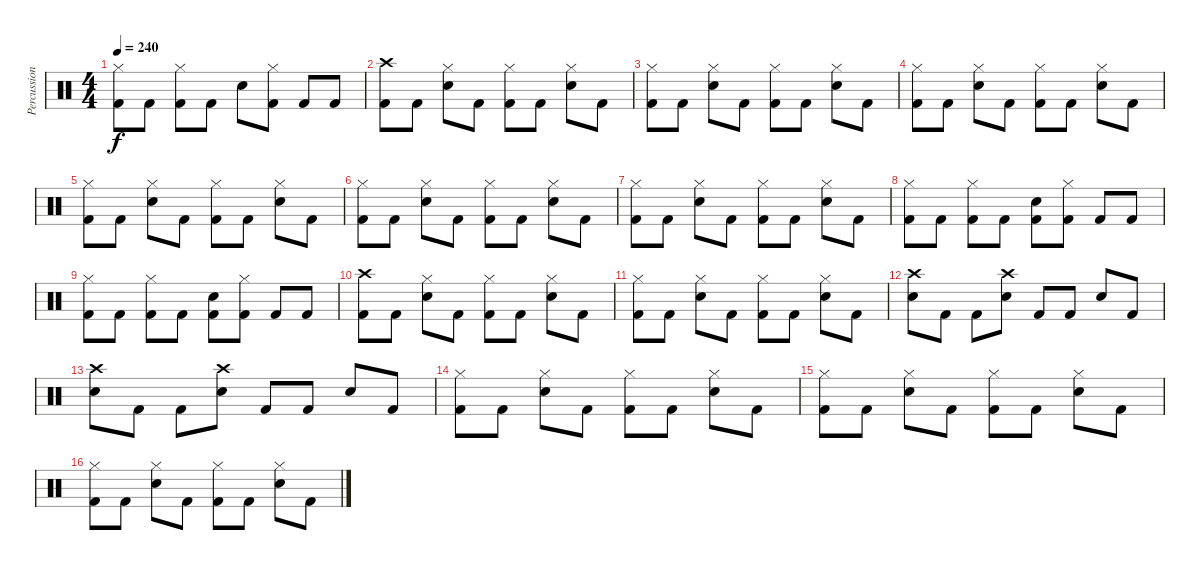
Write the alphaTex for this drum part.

\track ("Percussion" "Percussion") {instrument percussion}
\staff {score}
\articulation defaults
\ts (4 4)
\tempo 240
\clef neutral
\ks c
("Kick (hit) 2" "Hi-Hat (closed)").8{dy f} "Kick (hit) 2".8 ("Kick (hit) 2" "Hi-Hat (closed)").8 "Kick (hit) 2".8 "Snare (hit) 2".8 ("Kick (hit) 2" "Hi-Hat (closed)").8 "Kick (hit) 2".8 "Kick (hit) 2".8 |
("Kick (hit) 2" "Crash high (hit)").8 "Kick (hit) 2".8 ("Snare (hit) 2" "Hi-Hat (closed)").8 "Kick (hit) 2".8 ("Kick (hit) 2" "Hi-Hat (closed)").8 "Kick (hit) 2".8 ("Snare (hit) 2" "Hi-Hat (closed)").8 "Kick (hit) 2".8 |
("Kick (hit) 2" "Hi-Hat (closed)").8 "Kick (hit) 2".8 ("Snare (hit) 2" "Hi-Hat (closed)").8 "Kick (hit) 2".8 ("Kick (hit) 2" "Hi-Hat (closed)").8 "Kick (hit) 2".8 ("Snare (hit) 2" "Hi-Hat (closed)").8 "Kick (hit) 2".8 |
("Kick (hit) 2" "Hi-Hat (closed)").8 "Kick (hit) 2".8 ("Snare (hit) 2" "Hi-Hat (closed)").8 "Kick (hit) 2".8 ("Kick (hit) 2" "Hi-Hat (closed)").8 "Kick (hit) 2".8 ("Snare (hit) 2" "Hi-Hat (closed)").8 "Kick (hit) 2".8 |
("Kick (hit) 2" "Hi-Hat (closed)").8 "Kick (hit) 2".8 ("Snare (hit) 2" "Hi-Hat (closed)").8 "Kick (hit) 2".8 ("Kick (hit) 2" "Hi-Hat (closed)").8 "Kick (hit) 2".8 ("Snare (hit) 2" "Hi-Hat (closed)").8 "Kick (hit) 2".8 |
("Kick (hit) 2" "Hi-Hat (closed)").8 "Kick (hit) 2".8 ("Snare (hit) 2" "Hi-Hat (closed)").8 "Kick (hit) 2".8 ("Kick (hit) 2" "Hi-Hat (closed)").8 "Kick (hit) 2".8 ("Snare (hit) 2" "Hi-Hat (closed)").8 "Kick (hit) 2".8 |
("Kick (hit) 2" "Hi-Hat (closed)").8 "Kick (hit) 2".8 ("Snare (hit) 2" "Hi-Hat (closed)").8 "Kick (hit) 2".8 ("Kick (hit) 2" "Hi-Hat (closed)").8 "Kick (hit) 2".8 ("Snare (hit) 2" "Hi-Hat (closed)").8 "Kick (hit) 2".8 |
("Kick (hit) 2" "Hi-Hat (closed)").8 "Kick (hit) 2".8 ("Kick (hit) 2" "Hi-Hat (closed)").8 "Kick (hit) 2".8 ("Kick (hit) 2" "Snare (hit) 2").8 ("Kick (hit) 2" "Hi-Hat (closed)").8 "Kick (hit) 2".8 "Kick (hit) 2".8 |
("Kick (hit) 2" "Hi-Hat (closed)").8 "Kick (hit) 2".8 ("Kick (hit) 2" "Hi-Hat (closed)").8 "Kick (hit) 2".8 ("Kick (hit) 2" "Snare (hit) 2").8 ("Kick (hit) 2" "Hi-Hat (closed)").8 "Kick (hit) 2".8 "Kick (hit) 2".8 |
("Kick (hit) 2" "Crash high (hit)").8 "Kick (hit) 2".8 ("Snare (hit) 2" "Hi-Hat (closed)").8 "Kick (hit) 2".8 ("Kick (hit) 2" "Hi-Hat (closed)").8 "Kick (hit) 2".8 ("Snare (hit) 2" "Hi-Hat (closed)").8 "Kick (hit) 2".8 |
("Kick (hit) 2" "Hi-Hat (closed)").8 "Kick (hit) 2".8 ("Snare (hit) 2" "Hi-Hat (closed)").8 "Kick (hit) 2".8 ("Kick (hit) 2" "Hi-Hat (closed)").8 "Kick (hit) 2".8 ("Snare (hit) 2" "Hi-Hat (closed)").8 "Kick (hit) 2".8 |
("Snare (hit) 2" "Crash high (hit)").8 "Kick (hit) 2".8 "Kick (hit) 2".8 ("Snare (hit) 2" "Crash high (hit)").8 "Kick (hit) 2".8 "Kick (hit) 2".8 "Snare (hit) 2".8 "Kick (hit) 2".8 |
("Snare (hit) 2" "Crash high (hit)").8 "Kick (hit) 2".8 "Kick (hit) 2".8 ("Snare (hit) 2" "Crash high (hit)").8 "Kick (hit) 2".8 "Kick (hit) 2".8 "Snare (hit) 2".8 "Kick (hit) 2".8 |
("Kick (hit) 2" "Hi-Hat (closed)").8 "Kick (hit) 2".8 ("Snare (hit) 2" "Hi-Hat (closed)").8 "Kick (hit) 2".8 ("Kick (hit) 2" "Hi-Hat (closed)").8 "Kick (hit) 2".8 ("Snare (hit) 2" "Hi-Hat (closed)").8 "Kick (hit) 2".8 |
("Kick (hit) 2" "Hi-Hat (closed)").8 "Kick (hit) 2".8 ("Snare (hit) 2" "Hi-Hat (closed)").8 "Kick (hit) 2".8 ("Kick (hit) 2" "Hi-Hat (closed)").8 "Kick (hit) 2".8 ("Snare (hit) 2" "Hi-Hat (closed)").8 "Kick (hit) 2".8 |
("Kick (hit) 2" "Hi-Hat (closed)").8 "Kick (hit) 2".8 ("Snare (hit) 2" "Hi-Hat (closed)").8 "Kick (hit) 2".8 ("Kick (hit) 2" "Hi-Hat (closed)").8 "Kick (hit) 2".8 ("Snare (hit) 2" "Hi-Hat (closed)").8 "Kick (hit) 2".8
